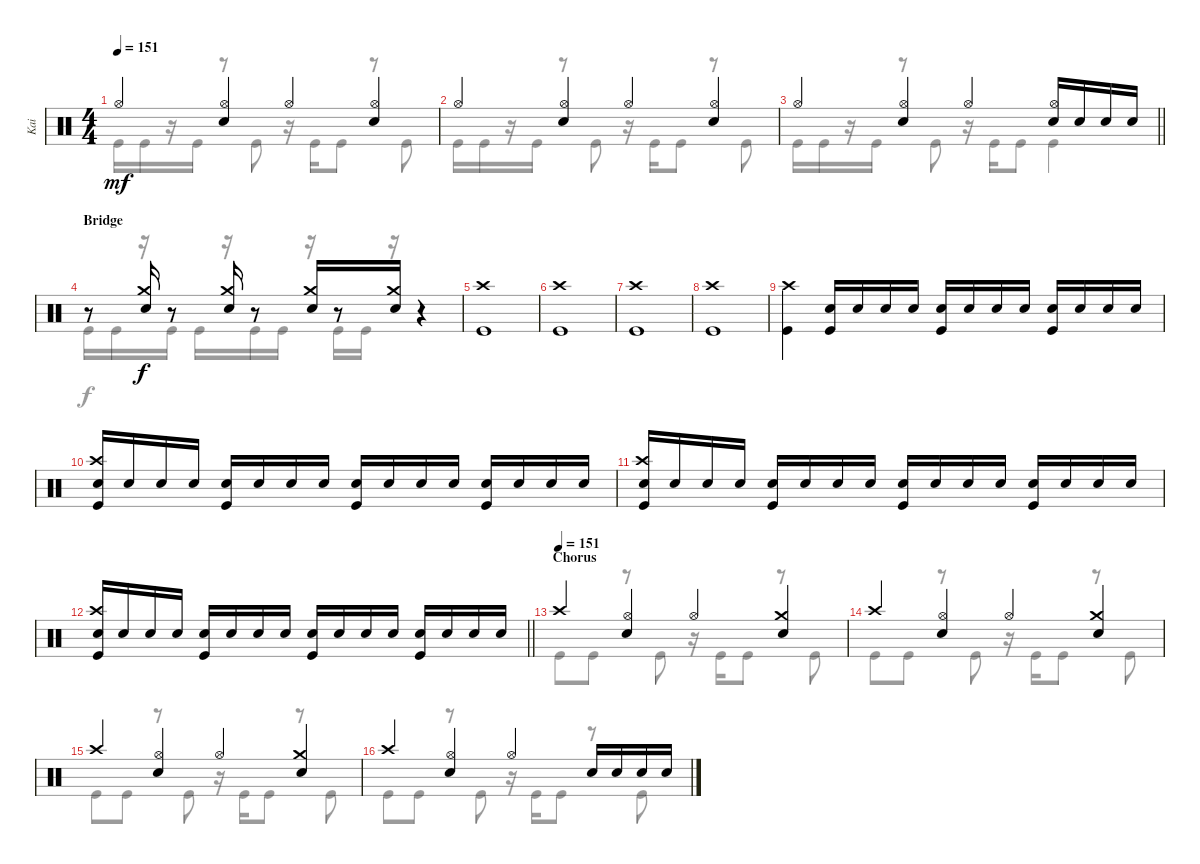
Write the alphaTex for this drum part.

\track ("Kai" "Kai") {instrument percussion}
\staff {score}
\articulation defaults
\voice
\ts (4 4)
\tempo 151
\clef neutral
\ks c "Hi-Hat (open)".4{dy mf}
("Hi-Hat (open)" "Electric Snare (hit)").4 "Hi-Hat (open)".4 ("Hi-Hat (open)" "Electric Snare (hit)").4 |
"Hi-Hat (open)".4 ("Hi-Hat (open)" "Electric Snare (hit)").4 "Hi-Hat (open)".4 ("Hi-Hat (open)" "Electric Snare (hit)").4 |
\barLineRight lightlight "Hi-Hat (open)".4
("Hi-Hat (open)" "Electric Snare (hit)").4 "Hi-Hat (open)".4 ("Hi-Hat (open)" "Electric Snare (hit)").16 "Electric Snare (hit)".16 "Electric Snare (hit)".16 "Electric Snare (hit)".16 |
\section ("" "Bridge")
r.8 ("Crash medium (hit)" "Electric Snare (hit)").16{dy f} r.8 ("Crash medium (hit)" "Electric Snare (hit)").16 r.8 ("Crash medium (hit)" "Electric Snare (hit)").16 r.8 ("Crash medium (hit)" "Electric Snare (hit)").16 r.4 |
("Crash high (hit)" "Kick (hit)").1 |
("Crash high (hit)" "Kick (hit)").1 |
("Crash high (hit)" "Kick (hit)").1 |
("Crash high (hit)" "Kick (hit)").1 |
("Crash high (hit)" "Kick (hit)").4 ("Electric Snare (hit)" "Kick (hit)").16 "Electric Snare (hit)".16 "Electric Snare (hit)".16 "Electric Snare (hit)".16 ("Electric Snare (hit)" "Kick (hit)").16 "Electric Snare (hit)".16 "Electric Snare (hit)".16 "Electric Snare (hit)".16 ("Electric Snare (hit)" "Kick (hit)").16 "Electric Snare (hit)".16 "Electric Snare (hit)".16 "Electric Snare (hit)".16 |
("Crash high (hit)" "Electric Snare (hit)" "Kick (hit)").16 "Electric Snare (hit)".16 "Electric Snare (hit)".16 "Electric Snare (hit)".16 ("Electric Snare (hit)" "Kick (hit)").16 "Electric Snare (hit)".16 "Electric Snare (hit)".16 "Electric Snare (hit)".16 ("Electric Snare (hit)" "Kick (hit)").16 "Electric Snare (hit)".16 "Electric Snare (hit)".16 "Electric Snare (hit)".16 ("Electric Snare (hit)" "Kick (hit)").16 "Electric Snare (hit)".16 "Electric Snare (hit)".16 "Electric Snare (hit)".16 |
("Crash high (hit)" "Electric Snare (hit)" "Kick (hit)").16 "Electric Snare (hit)".16 "Electric Snare (hit)".16 "Electric Snare (hit)".16 ("Electric Snare (hit)" "Kick (hit)").16 "Electric Snare (hit)".16 "Electric Snare (hit)".16 "Electric Snare (hit)".16 ("Electric Snare (hit)" "Kick (hit)").16 "Electric Snare (hit)".16 "Electric Snare (hit)".16 "Electric Snare (hit)".16 ("Electric Snare (hit)" "Kick (hit)").16 "Electric Snare (hit)".16 "Electric Snare (hit)".16 "Electric Snare (hit)".16 |
\barLineRight lightlight
("Crash high (hit)" "Electric Snare (hit)" "Kick (hit)").16 "Electric Snare (hit)".16 "Electric Snare (hit)".16 "Electric Snare (hit)".16 ("Electric Snare (hit)" "Kick (hit)").16 "Electric Snare (hit)".16 "Electric Snare (hit)".16 "Electric Snare (hit)".16 ("Electric Snare (hit)" "Kick (hit)").16 "Electric Snare (hit)".16 "Electric Snare (hit)".16 "Electric Snare (hit)".16 ("Electric Snare (hit)" "Kick (hit)").16 "Electric Snare (hit)".16 "Electric Snare (hit)".16 "Electric Snare (hit)".16 |
\section ("" "Chorus")
\tempo (151)
"Crash high (hit)".4 ("Hi-Hat (open)" "Electric Snare (hit)").4 "Hi-Hat (open)".4 ("Crash medium (hit)" "Electric Snare (hit)").4 |
"Crash high (hit)".4 ("Hi-Hat (open)" "Electric Snare (hit)").4 "Hi-Hat (open)".4 ("Crash medium (hit)" "Electric Snare (hit)").4 |
"Crash high (hit)".4 ("Hi-Hat (open)" "Electric Snare (hit)").4 "Hi-Hat (open)".4 ("Crash medium (hit)" "Electric Snare (hit)").4 |
"Crash high (hit)".4 ("Hi-Hat (open)" "Electric Snare (hit)").4 "Hi-Hat (open)".4 "Electric Snare (hit)".16 "Electric Snare (hit)".16 "Electric Snare (hit)".16 "Electric Snare (hit)".16
\voice
\clef neutral
\ottava regular
\simile none
\ks c "Kick (hit)".16{dy mf} "Kick (hit)".16
r.16 "Kick (hit)".16 r.8 "Kick (hit)".8 r.16 "Kick (hit)".16 "Kick (hit)".8 r.8 "Kick (hit)".8 |
"Kick (hit)".16 "Kick (hit)".16 r.16 "Kick (hit)".16 r.8 "Kick (hit)".8 r.16 "Kick (hit)".16 "Kick (hit)".8 r.8 "Kick (hit)".8 |
\barLineRight lightlight "Kick (hit)".16 "Kick (hit)".16
r.16 "Kick (hit)".16 r.8 "Kick (hit)".8 r.16 "Kick (hit)".16 "Kick (hit)".8 "Kick (hit)".4 |
"Kick (hit)".16{dy f} "Kick (hit)".16 r.16 "Kick (hit)".16 "Kick (hit)".16 r.16 "Kick (hit)".16 "Kick (hit)".16 r.16 "Kick (hit)".16 "Kick (hit)".16 r.16 r.4 |
|
|
|
|
|
|
|
\barLineRight lightlight
|
"Kick (hit)".8 "Kick (hit)".8 r.8 "Kick (hit)".8 r.16 "Kick (hit)".16 "Kick (hit)".8 r.8 "Kick (hit)".8 |
"Kick (hit)".8 "Kick (hit)".8 r.8 "Kick (hit)".8 r.16 "Kick (hit)".16 "Kick (hit)".8 r.8 "Kick (hit)".8 |
"Kick (hit)".8 "Kick (hit)".8 r.8 "Kick (hit)".8 r.16 "Kick (hit)".16 "Kick (hit)".8 r.8 "Kick (hit)".8 |
"Kick (hit)".8 "Kick (hit)".8 r.8 "Kick (hit)".8 r.16 "Kick (hit)".16 "Kick (hit)".8 r.8 "Kick (hit)".8
